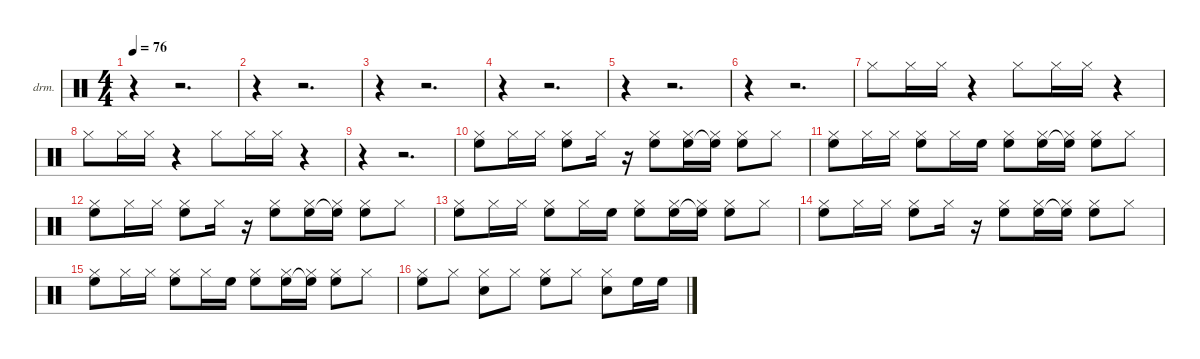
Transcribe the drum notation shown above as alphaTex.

\defaultSystemsLayout 4
\hideDynamics
\bracketExtendMode nobrackets
\firstSystemTrackNameOrientation horizontal
\otherSystemsTrackNameOrientation horizontal
\track ("¹ÄÉù" "drm.") {instrument percussion}
\staff {score}
\articulation defaults
\ts (4 4)
\tempo 76
\clef neutral
\ks c
r.4{dy f} r.2{d} |
r.4 r.2{d} |
r.4 r.2{d} |
r.4 r.2{d} |
r.4 r.2{d} |
r.4 r.2{d} |
"Hi-Hat (closed)".8 "Hi-Hat (closed)".16 "Hi-Hat (closed)".16 r.4 "Hi-Hat (closed)".8 "Hi-Hat (closed)".16 "Hi-Hat (closed)".16 r.4 |
"Hi-Hat (closed)".8 "Hi-Hat (closed)".16 "Hi-Hat (closed)".16 r.4 "Hi-Hat (closed)".8 "Hi-Hat (closed)".16 "Hi-Hat (closed)".16 r.4 |
r.4 r.2{d} |
("Hi-Hat (closed)" "High Floor Tom (hit)").8 "Hi-Hat (closed)".16 "Hi-Hat (closed)".16 ("High Floor Tom (hit)" "Hi-Hat (closed)").8 "Hi-Hat (closed)".16 r.16 ("Hi-Hat (closed)" "High Floor Tom (hit)").8 ("Hi-Hat (closed)" "High Floor Tom (hit)").16 ("Hi-Hat (closed)" "High Floor Tom (hit)"{t}).16 ("High Floor Tom (hit)" "Hi-Hat (closed)").8 "Hi-Hat (closed)".8 |
("Hi-Hat (closed)" "High Floor Tom (hit)").8 "Hi-Hat (closed)".16 "Hi-Hat (closed)".16 ("High Floor Tom (hit)" "Hi-Hat (closed)").8 "Hi-Hat (closed)".16 "High Floor Tom (hit)".16 ("Hi-Hat (closed)" "High Floor Tom (hit)").8 ("Hi-Hat (closed)" "High Floor Tom (hit)").16 ("Hi-Hat (closed)" "High Floor Tom (hit)"{t}).16 ("High Floor Tom (hit)" "Hi-Hat (closed)").8 "Hi-Hat (closed)".8 |
("Hi-Hat (closed)" "High Floor Tom (hit)").8 "Hi-Hat (closed)".16 "Hi-Hat (closed)".16 ("High Floor Tom (hit)" "Hi-Hat (closed)").8 "Hi-Hat (closed)".16 r.16 ("Hi-Hat (closed)" "High Floor Tom (hit)").8 ("Hi-Hat (closed)" "High Floor Tom (hit)").16 ("Hi-Hat (closed)" "High Floor Tom (hit)"{t}).16 ("High Floor Tom (hit)" "Hi-Hat (closed)").8 "Hi-Hat (closed)".8 |
("Hi-Hat (closed)" "High Floor Tom (hit)").8 "Hi-Hat (closed)".16 "Hi-Hat (closed)".16 ("High Floor Tom (hit)" "Hi-Hat (closed)").8 "Hi-Hat (closed)".16 "High Floor Tom (hit)".16 ("Hi-Hat (closed)" "High Floor Tom (hit)").8 ("Hi-Hat (closed)" "High Floor Tom (hit)").16 ("Hi-Hat (closed)" "High Floor Tom (hit)"{t}).16 ("High Floor Tom (hit)" "Hi-Hat (closed)").8 "Hi-Hat (closed)".8 |
("Hi-Hat (closed)" "High Floor Tom (hit)").8 "Hi-Hat (closed)".16 "Hi-Hat (closed)".16 ("High Floor Tom (hit)" "Hi-Hat (closed)").8 "Hi-Hat (closed)".16 r.16 ("Hi-Hat (closed)" "High Floor Tom (hit)").8 ("Hi-Hat (closed)" "High Floor Tom (hit)").16 ("Hi-Hat (closed)" "High Floor Tom (hit)"{t}).16 ("High Floor Tom (hit)" "Hi-Hat (closed)").8 "Hi-Hat (closed)".8 |
("Hi-Hat (closed)" "High Floor Tom (hit)").8 "Hi-Hat (closed)".16 "Hi-Hat (closed)".16 ("High Floor Tom (hit)" "Hi-Hat (closed)").8 "Hi-Hat (closed)".16 "High Floor Tom (hit)".16 ("Hi-Hat (closed)" "High Floor Tom (hit)").8 ("Hi-Hat (closed)" "High Floor Tom (hit)").16 ("Hi-Hat (closed)" "High Floor Tom (hit)"{t}).16 ("High Floor Tom (hit)" "Hi-Hat (closed)").8 "Hi-Hat (closed)".8 |
("Hi-Hat (closed)" "High Floor Tom (hit)").8 "Hi-Hat (closed)".8 ("Hi-Hat (closed)" "Snare (hit) 2").8 "Hi-Hat (closed)".8 ("Hi-Hat (closed)" "High Floor Tom (hit)").8 "Hi-Hat (closed)".8 ("Hi-Hat (closed)" "Snare (hit) 2").8 "High Floor Tom (hit)".16 "High Floor Tom (hit)".16
